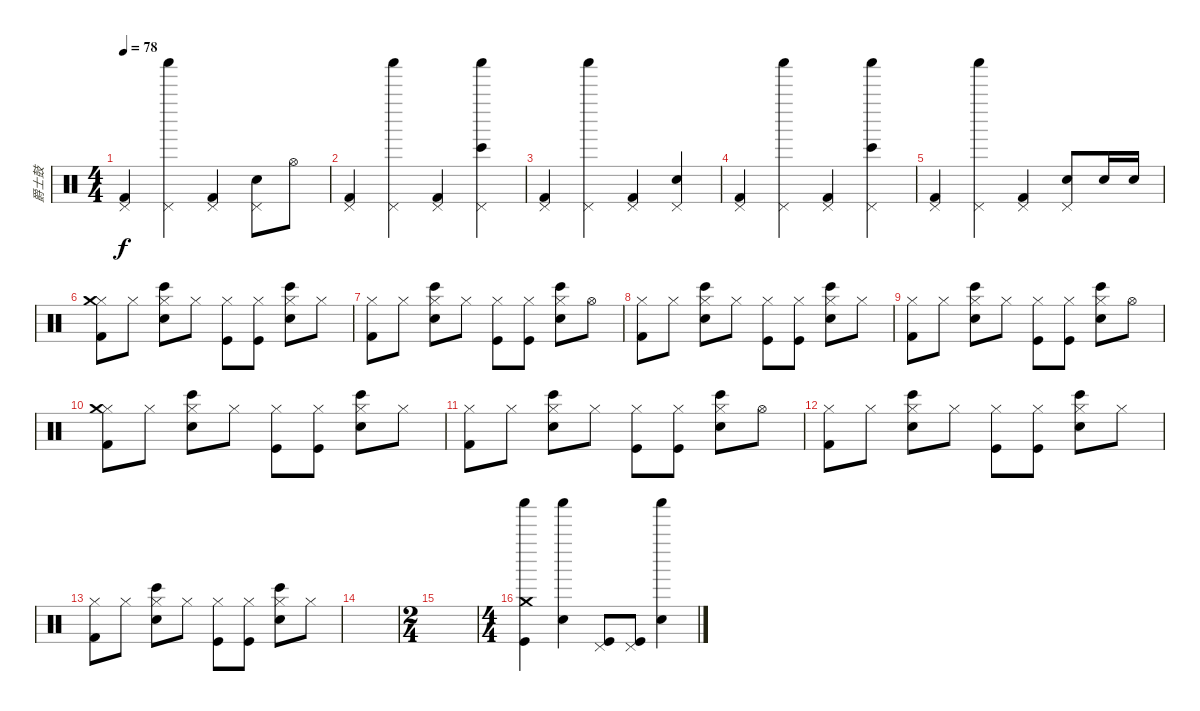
\track ("爵士鼓" "爵士鼓") {instrument percussion}
\staff {score}
\articulation defaults
\ts (4 4)
\tempo 78
\clef neutral
\ks c
("Kick (hit) 2" "Pedal Hi-Hat (hit)").4{dy f} ("Shaker (hit)" "Pedal Hi-Hat (hit)").4 ("Kick (hit) 2" "Pedal Hi-Hat (hit)").4 ("Snare (hit) 2" "Pedal Hi-Hat (hit)").8 "Hi-Hat (open)".8 |
("Kick (hit) 2" "Pedal Hi-Hat (hit)").4 ("Shaker (hit)" "Pedal Hi-Hat (hit)").4 ("Kick (hit) 2" "Pedal Hi-Hat (hit)").4 ("Shaker (hit)" "Bongo High (hit)" "Pedal Hi-Hat (hit)").4 |
("Kick (hit) 2" "Pedal Hi-Hat (hit)").4 ("Shaker (hit)" "Pedal Hi-Hat (hit)").4 ("Kick (hit) 2" "Pedal Hi-Hat (hit)").4 ("Snare (hit) 2" "Pedal Hi-Hat (hit)").4 |
("Kick (hit) 2" "Pedal Hi-Hat (hit)").4 ("Shaker (hit)" "Pedal Hi-Hat (hit)").4 ("Kick (hit) 2" "Pedal Hi-Hat (hit)").4 ("Shaker (hit)" "Bongo High (hit)" "Pedal Hi-Hat (hit)").4 |
("Kick (hit) 2" "Pedal Hi-Hat (hit)").4 ("Shaker (hit)" "Pedal Hi-Hat (hit)").4 ("Kick (hit) 2" "Pedal Hi-Hat (hit)").4 ("Snare (hit) 2" "Pedal Hi-Hat (hit)").8 "Snare (hit) 2".16 "Snare (hit) 2".16 |
("Hi-Hat (closed)" "Crash medium (hit)" "Kick (hit) 2").8 "Hi-Hat (closed)".8 ("Hi-Hat (closed)" "Bongo High (hit)" "Snare (hit) 2").8 "Hi-Hat (closed)".8 ("Hi-Hat (closed)" "Kick (hit)").8 ("Hi-Hat (closed)" "Kick (hit)").8 ("Hi-Hat (closed)" "Bongo High (hit)" "Snare (hit) 2").8 "Hi-Hat (closed)".8 |
("Hi-Hat (closed)" "Kick (hit) 2").8 "Hi-Hat (closed)".8 ("Hi-Hat (closed)" "Bongo High (hit)" "Snare (hit) 2").8 "Hi-Hat (closed)".8 ("Hi-Hat (closed)" "Kick (hit)").8 ("Hi-Hat (closed)" "Kick (hit)").8 ("Hi-Hat (closed)" "Bongo High (hit)" "Snare (hit) 2").8 "Hi-Hat (open)".8 |
("Hi-Hat (closed)" "Kick (hit) 2").8 "Hi-Hat (closed)".8 ("Hi-Hat (closed)" "Bongo High (hit)" "Snare (hit) 2").8 "Hi-Hat (closed)".8 ("Hi-Hat (closed)" "Kick (hit)").8 ("Hi-Hat (closed)" "Kick (hit)").8 ("Hi-Hat (closed)" "Bongo High (hit)" "Snare (hit) 2").8 "Hi-Hat (closed)".8 |
("Hi-Hat (closed)" "Kick (hit) 2").8 "Hi-Hat (closed)".8 ("Hi-Hat (closed)" "Bongo High (hit)" "Snare (hit) 2").8 "Hi-Hat (closed)".8 ("Hi-Hat (closed)" "Kick (hit)").8 ("Hi-Hat (closed)" "Kick (hit)").8 ("Hi-Hat (closed)" "Bongo High (hit)" "Snare (hit) 2").8 "Hi-Hat (open)".8 |
("Hi-Hat (closed)" "Crash medium (hit)" "Kick (hit) 2").8 "Hi-Hat (closed)".8 ("Hi-Hat (closed)" "Bongo High (hit)" "Snare (hit) 2").8 "Hi-Hat (closed)".8 ("Hi-Hat (closed)" "Kick (hit)").8 ("Hi-Hat (closed)" "Kick (hit)").8 ("Hi-Hat (closed)" "Bongo High (hit)" "Snare (hit) 2").8 "Hi-Hat (closed)".8 |
("Hi-Hat (closed)" "Kick (hit) 2").8 "Hi-Hat (closed)".8 ("Hi-Hat (closed)" "Bongo High (hit)" "Snare (hit) 2").8 "Hi-Hat (closed)".8 ("Hi-Hat (closed)" "Kick (hit)").8 ("Hi-Hat (closed)" "Kick (hit)").8 ("Hi-Hat (closed)" "Bongo High (hit)" "Snare (hit) 2").8 "Hi-Hat (open)".8 |
("Hi-Hat (closed)" "Kick (hit) 2").8 "Hi-Hat (closed)".8 ("Hi-Hat (closed)" "Bongo High (hit)" "Snare (hit) 2").8 "Hi-Hat (closed)".8 ("Hi-Hat (closed)" "Kick (hit)").8 ("Hi-Hat (closed)" "Kick (hit)").8 ("Hi-Hat (closed)" "Bongo High (hit)" "Snare (hit) 2").8 "Hi-Hat (closed)".8 |
("Hi-Hat (closed)" "Kick (hit) 2").8 "Hi-Hat (closed)".8 ("Hi-Hat (closed)" "Bongo High (hit)" "Snare (hit) 2").8 "Hi-Hat (closed)".8 ("Hi-Hat (closed)" "Kick (hit)").8 ("Hi-Hat (closed)" "Kick (hit)").8 ("Hi-Hat (closed)" "Bongo High (hit)" "Snare (hit) 2").8 "Hi-Hat (closed)".8 |
|
\ts (2 4)
|
\ts (4 4)
("Crash medium (hit)" "Shaker (hit)" "Kick (hit)").4 ("Shaker (hit)" "Snare (hit) 2").4 ("Pedal Hi-Hat (hit)" "Kick (hit)").8 ("Pedal Hi-Hat (hit)" "Kick (hit)").8 ("Shaker (hit)" "Snare (hit) 2").4
